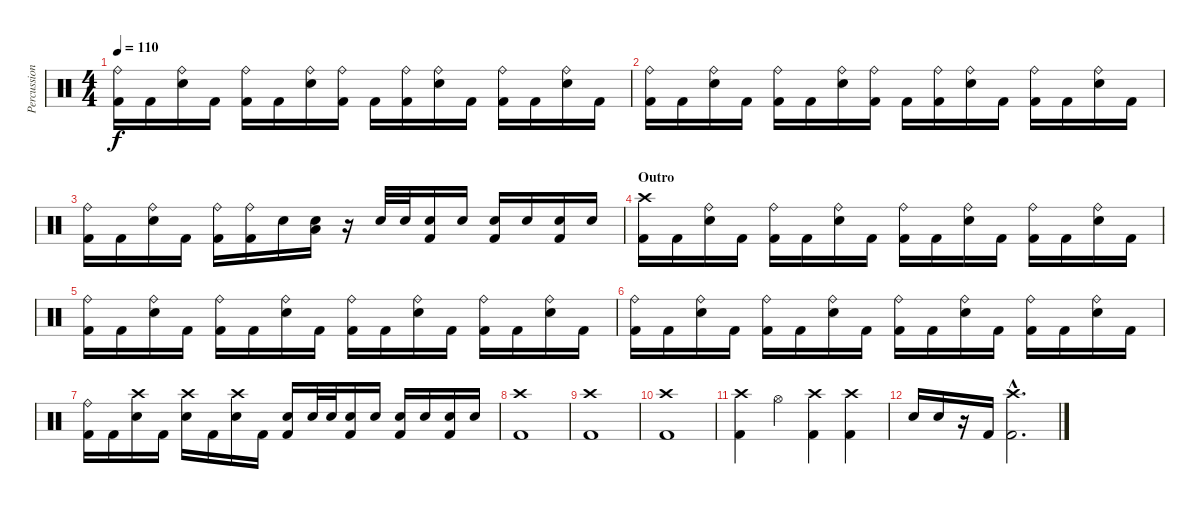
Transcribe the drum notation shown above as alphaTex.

\track ("Percussion" "Percussion") {instrument percussion}
\staff {score}
\articulation defaults
\ts (4 4)
\tempo 110
\clef neutral
\ks c
("Kick (hit) 2" "Ride (bell)").16{dy f} "Kick (hit) 2".16 ("Electric Snare (hit)" "Ride (bell)").16 "Kick (hit) 2".16 ("Kick (hit) 2" "Ride (bell)").16 "Kick (hit) 2".16 ("Electric Snare (hit)" "Ride (bell)").16 ("Kick (hit) 2" "Ride (bell)").16 "Kick (hit) 2".16 ("Kick (hit) 2" "Ride (bell)").16 ("Electric Snare (hit)" "Ride (bell)").16 "Kick (hit) 2".16 ("Kick (hit) 2" "Ride (bell)").16 "Kick (hit) 2".16 ("Electric Snare (hit)" "Ride (bell)").16 "Kick (hit) 2".16 |
("Kick (hit) 2" "Ride (bell)").16 "Kick (hit) 2".16 ("Electric Snare (hit)" "Ride (bell)").16 "Kick (hit) 2".16 ("Kick (hit) 2" "Ride (bell)").16 "Kick (hit) 2".16 ("Electric Snare (hit)" "Ride (bell)").16 ("Kick (hit) 2" "Ride (bell)").16 "Kick (hit) 2".16 ("Kick (hit) 2" "Ride (bell)").16 ("Electric Snare (hit)" "Ride (bell)").16 "Kick (hit) 2".16 ("Kick (hit) 2" "Ride (bell)").16 "Kick (hit) 2".16 ("Electric Snare (hit)" "Ride (bell)").16 "Kick (hit) 2".16 |
("Kick (hit) 2" "Ride (bell)").16 "Kick (hit) 2".16 ("Electric Snare (hit)" "Ride (bell)").16 "Kick (hit) 2".16 ("Kick (hit) 2" "Ride (bell)").16 ("Kick (hit) 2" "Ride (bell)").16 "Electric Snare (hit)".16 ("Electric Snare (hit)" "Low Tom (hit)").16 r.16 "Electric Snare (hit)".32 "Electric Snare (hit)".32 ("Electric Snare (hit)" "Kick (hit) 2").16 "Electric Snare (hit)".16 ("Electric Snare (hit)" "Kick (hit) 2").16 "Electric Snare (hit)".16 ("Electric Snare (hit)" "Kick (hit) 2").16 "Electric Snare (hit)".16 |
\section ("" "Outro")
("Kick (hit) 2" "Crash high (hit)").16 "Kick (hit) 2".16 ("Electric Snare (hit)" "Ride (bell)").16 "Kick (hit) 2".16 ("Kick (hit) 2" "Ride (bell)").16 "Kick (hit) 2".16 ("Electric Snare (hit)" "Ride (bell)").16 "Kick (hit) 2".16 ("Kick (hit) 2" "Ride (bell)").16 "Kick (hit) 2".16 ("Electric Snare (hit)" "Ride (bell)").16 "Kick (hit) 2".16 ("Kick (hit) 2" "Ride (bell)").16 "Kick (hit) 2".16 ("Electric Snare (hit)" "Ride (bell)").16 "Kick (hit) 2".16 |
("Kick (hit) 2" "Ride (bell)").16 "Kick (hit) 2".16 ("Electric Snare (hit)" "Ride (bell)").16 "Kick (hit) 2".16 ("Kick (hit) 2" "Ride (bell)").16 "Kick (hit) 2".16 ("Electric Snare (hit)" "Ride (bell)").16 "Kick (hit) 2".16 ("Kick (hit) 2" "Ride (bell)").16 "Kick (hit) 2".16 ("Electric Snare (hit)" "Ride (bell)").16 "Kick (hit) 2".16 ("Kick (hit) 2" "Ride (bell)").16 "Kick (hit) 2".16 ("Electric Snare (hit)" "Ride (bell)").16 "Kick (hit) 2".16 |
("Kick (hit) 2" "Ride (bell)").16 "Kick (hit) 2".16 ("Electric Snare (hit)" "Ride (bell)").16 "Kick (hit) 2".16 ("Kick (hit) 2" "Ride (bell)").16 "Kick (hit) 2".16 ("Electric Snare (hit)" "Ride (bell)").16 "Kick (hit) 2".16 ("Kick (hit) 2" "Ride (bell)").16 "Kick (hit) 2".16 ("Electric Snare (hit)" "Ride (bell)").16 "Kick (hit) 2".16 ("Kick (hit) 2" "Ride (bell)").16 "Kick (hit) 2".16 ("Electric Snare (hit)" "Ride (bell)").16 "Kick (hit) 2".16 |
("Kick (hit) 2" "Ride (bell)").16 "Kick (hit) 2".16 ("Electric Snare (hit)" "Crash high (hit)").16 "Kick (hit) 2".16 ("Electric Snare (hit)" "Crash high (hit)").16 "Kick (hit) 2".16 ("Electric Snare (hit)" "Crash high (hit)").16 "Kick (hit) 2".16 ("Electric Snare (hit)" "Kick (hit) 2").16 "Electric Snare (hit)".32 "Electric Snare (hit)".32 ("Electric Snare (hit)" "Kick (hit) 2").16 "Electric Snare (hit)".16 ("Electric Snare (hit)" "Kick (hit) 2").16 "Electric Snare (hit)".16 ("Electric Snare (hit)" "Kick (hit) 2").16 "Electric Snare (hit)".16 |
("Kick (hit) 2" "Crash high (hit)").1 |
("Kick (hit) 2" "Crash high (hit)").1 |
("Kick (hit) 2" "Crash high (hit)").1 |
("Kick (hit) 2" "Crash high (hit)").4 "Hi-Hat (open)".4 ("Kick (hit) 2" "Crash high (hit)").4 ("Kick (hit) 2" "Crash high (hit)").4 |
"Electric Snare (hit)".16 "Electric Snare (hit)".16 r.16 "Kick (hit) 2".16 ("Kick (hit) 2"{hac} "Crash high (hit)"{hac}).2{d}
